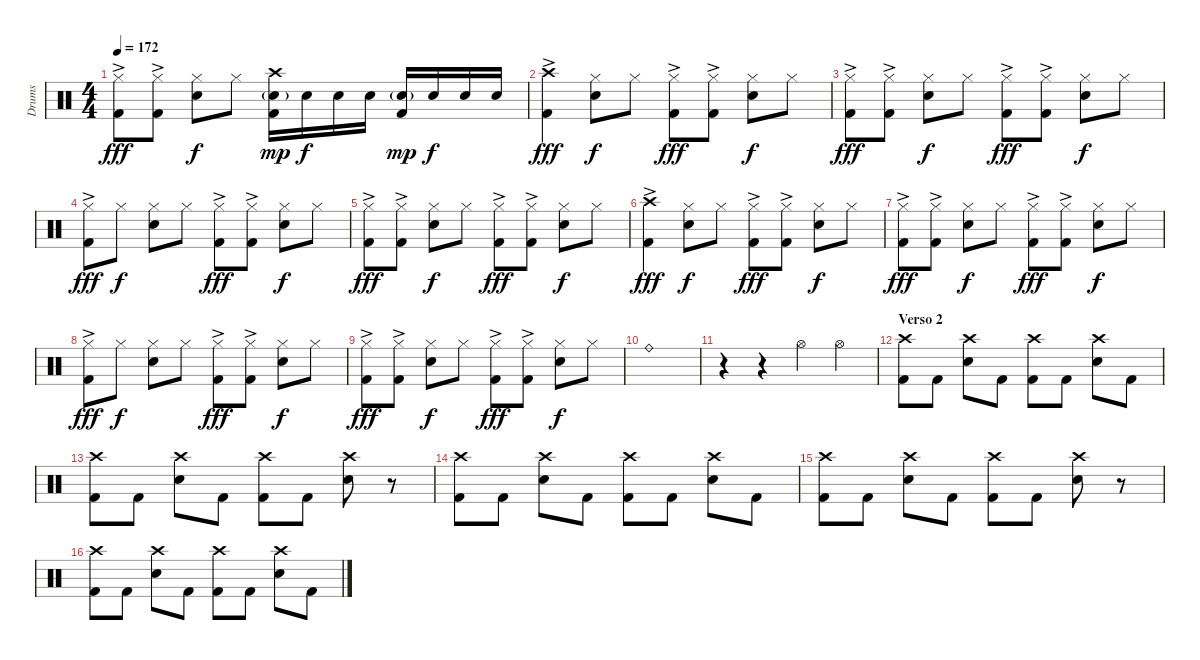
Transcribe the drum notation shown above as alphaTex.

\track ("Drums" "Drums") {instrument percussion}
\staff {score}
\articulation defaults
\ts (4 4)
\tempo 172
\clef neutral
\ks c
("Hi-Hat (closed)" "Kick (hit) 2"{ac}).8{dy fff} ("Hi-Hat (closed)" "Kick (hit) 2"{ac}).8 ("Hi-Hat (closed)" "Electric Snare (hit)").8{dy f} "Hi-Hat (closed)".8 ("Crash high (hit)" "Electric Snare (hit)"{g} "Kick (hit) 2").16{dy mp} "Electric Snare (hit)".16{dy f} "Electric Snare (hit)".16 "Electric Snare (hit)".16 ("Electric Snare (hit)"{g} "Kick (hit) 2").16{dy mp} "Electric Snare (hit)".16{dy f} "Electric Snare (hit)".16 "Electric Snare (hit)".16 |
("Crash high (hit)" "Kick (hit) 2"{ac}).4{dy fff} ("Hi-Hat (closed)" "Electric Snare (hit)").8{dy f} "Hi-Hat (closed)".8 ("Hi-Hat (closed)" "Kick (hit) 2"{ac}).8{dy fff} ("Hi-Hat (closed)" "Kick (hit) 2"{ac}).8 ("Hi-Hat (closed)" "Electric Snare (hit)").8{dy f} "Hi-Hat (closed)".8 |
("Hi-Hat (closed)" "Kick (hit) 2"{ac}).8{dy fff} ("Hi-Hat (closed)" "Kick (hit) 2"{ac}).8 ("Hi-Hat (closed)" "Electric Snare (hit)").8{dy f} "Hi-Hat (closed)".8 ("Hi-Hat (closed)" "Kick (hit) 2"{ac}).8{dy fff} ("Hi-Hat (closed)" "Kick (hit) 2"{ac}).8 ("Hi-Hat (closed)" "Electric Snare (hit)").8{dy f} "Hi-Hat (closed)".8 |
("Hi-Hat (closed)" "Kick (hit) 2"{ac}).8{dy fff} "Hi-Hat (closed)".8{dy f} ("Hi-Hat (closed)" "Electric Snare (hit)").8 "Hi-Hat (closed)".8 ("Hi-Hat (closed)" "Kick (hit) 2"{ac}).8{dy fff} ("Hi-Hat (closed)" "Kick (hit) 2"{ac}).8 ("Hi-Hat (closed)" "Electric Snare (hit)").8{dy f} "Hi-Hat (closed)".8 |
("Hi-Hat (closed)" "Kick (hit) 2"{ac}).8{dy fff} ("Hi-Hat (closed)" "Kick (hit) 2"{ac}).8 ("Hi-Hat (closed)" "Electric Snare (hit)").8{dy f} "Hi-Hat (closed)".8 ("Hi-Hat (closed)" "Kick (hit) 2"{ac}).8{dy fff} ("Hi-Hat (closed)" "Kick (hit) 2"{ac}).8 ("Hi-Hat (closed)" "Electric Snare (hit)").8{dy f} "Hi-Hat (closed)".8 |
("Crash high (hit)" "Kick (hit) 2"{ac}).4{dy fff} ("Hi-Hat (closed)" "Electric Snare (hit)").8{dy f} "Hi-Hat (closed)".8 ("Hi-Hat (closed)" "Kick (hit) 2"{ac}).8{dy fff} ("Hi-Hat (closed)" "Kick (hit) 2"{ac}).8 ("Hi-Hat (closed)" "Electric Snare (hit)").8{dy f} "Hi-Hat (closed)".8 |
("Hi-Hat (closed)" "Kick (hit) 2"{ac}).8{dy fff} ("Hi-Hat (closed)" "Kick (hit) 2"{ac}).8 ("Hi-Hat (closed)" "Electric Snare (hit)").8{dy f} "Hi-Hat (closed)".8 ("Hi-Hat (closed)" "Kick (hit) 2"{ac}).8{dy fff} ("Hi-Hat (closed)" "Kick (hit) 2"{ac}).8 ("Hi-Hat (closed)" "Electric Snare (hit)").8{dy f} "Hi-Hat (closed)".8 |
("Hi-Hat (closed)" "Kick (hit) 2"{ac}).8{dy fff} "Hi-Hat (closed)".8{dy f} ("Hi-Hat (closed)" "Electric Snare (hit)").8 "Hi-Hat (closed)".8 ("Hi-Hat (closed)" "Kick (hit) 2"{ac}).8{dy fff} ("Hi-Hat (closed)" "Kick (hit) 2"{ac}).8 ("Hi-Hat (closed)" "Electric Snare (hit)").8{dy f} "Hi-Hat (closed)".8 |
("Hi-Hat (closed)" "Kick (hit) 2"{ac}).8{dy fff} ("Hi-Hat (closed)" "Kick (hit) 2"{ac}).8 ("Hi-Hat (closed)" "Electric Snare (hit)").8{dy f} "Hi-Hat (closed)".8 ("Hi-Hat (closed)" "Kick (hit) 2"{ac}).8{dy fff} ("Hi-Hat (closed)" "Kick (hit) 2"{ac}).8 ("Hi-Hat (closed)" "Electric Snare (hit)").8{dy f} "Hi-Hat (closed)".8 |
\section ("" "")
"Ride (bell)".1 |
r.4 r.4 "Hi-Hat (open)".4 "Hi-Hat (open)".4 |
\section ("" "Verso 2")
("Crash high (hit)" "Kick (hit) 2").8 "Kick (hit) 2".8 ("Crash high (hit)" "Electric Snare (hit)").8 "Kick (hit) 2".8 ("Crash high (hit)" "Kick (hit) 2").8 "Kick (hit) 2".8 ("Crash high (hit)" "Electric Snare (hit)").8 "Kick (hit) 2".8 |
("Crash high (hit)" "Kick (hit) 2").8 "Kick (hit) 2".8 ("Crash high (hit)" "Electric Snare (hit)").8 "Kick (hit) 2".8 ("Crash high (hit)" "Kick (hit) 2").8 "Kick (hit) 2".8 ("Crash high (hit)" "Electric Snare (hit)").8 r.8 |
("Crash high (hit)" "Kick (hit) 2").8 "Kick (hit) 2".8 ("Crash high (hit)" "Electric Snare (hit)").8 "Kick (hit) 2".8 ("Crash high (hit)" "Kick (hit) 2").8 "Kick (hit) 2".8 ("Crash high (hit)" "Electric Snare (hit)").8 "Kick (hit) 2".8 |
("Crash high (hit)" "Kick (hit) 2").8 "Kick (hit) 2".8 ("Crash high (hit)" "Electric Snare (hit)").8 "Kick (hit) 2".8 ("Crash high (hit)" "Kick (hit) 2").8 "Kick (hit) 2".8 ("Crash high (hit)" "Electric Snare (hit)").8 r.8 |
("Crash high (hit)" "Kick (hit) 2").8 "Kick (hit) 2".8 ("Crash high (hit)" "Electric Snare (hit)").8 "Kick (hit) 2".8 ("Crash high (hit)" "Kick (hit) 2").8 "Kick (hit) 2".8 ("Crash high (hit)" "Electric Snare (hit)").8 "Kick (hit) 2".8
